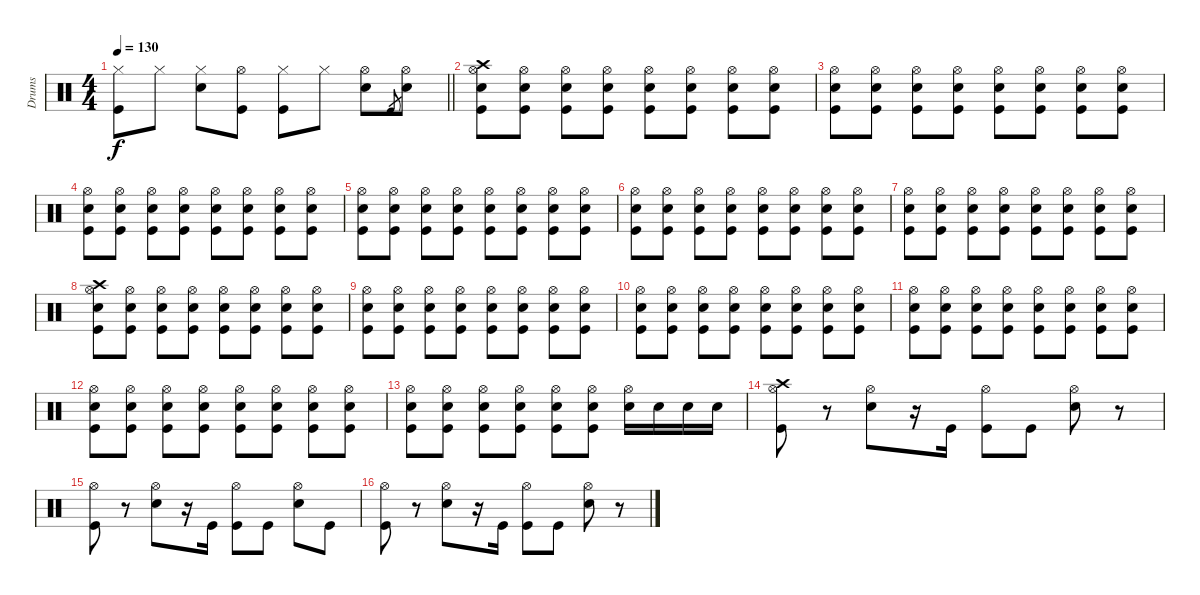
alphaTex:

\track ("Drums" "Drums") {instrument percussion}
\staff {score}
\articulation defaults
\ts (4 4)
\tempo 130
\clef neutral
\barLineRight lightlight
\ks c
("Hi-Hat (closed)" "Kick (hit)").8{dy f} "Hi-Hat (closed)".8 ("Hi-Hat (closed)" "Snare (hit) 2").8 ("Hi-Hat (open)" "Kick (hit)").8 ("Hi-Hat (closed)" "Kick (hit)").8 "Hi-Hat (closed)".8 ("Hi-Hat (open)" "Snare (hit) 2").8 "Kick (hit)".8{gr} ("Hi-Hat (open)" "Snare (hit) 2").8 |
\section ("" "")
("Crash high (hit)" "Hi-Hat (open)" "Snare (hit) 2" "Kick (hit)").8 ("Hi-Hat (open)" "Snare (hit) 2" "Kick (hit)").8 ("Hi-Hat (open)" "Snare (hit) 2" "Kick (hit)").8 ("Hi-Hat (open)" "Snare (hit) 2" "Kick (hit)").8 ("Hi-Hat (open)" "Snare (hit) 2" "Kick (hit)").8 ("Hi-Hat (open)" "Snare (hit) 2" "Kick (hit)").8 ("Hi-Hat (open)" "Snare (hit) 2" "Kick (hit)").8 ("Hi-Hat (open)" "Snare (hit) 2" "Kick (hit)").8 |
("Hi-Hat (open)" "Snare (hit) 2" "Kick (hit)").8 ("Hi-Hat (open)" "Snare (hit) 2" "Kick (hit)").8 ("Hi-Hat (open)" "Snare (hit) 2" "Kick (hit)").8 ("Hi-Hat (open)" "Snare (hit) 2" "Kick (hit)").8 ("Hi-Hat (open)" "Snare (hit) 2" "Kick (hit)").8 ("Hi-Hat (open)" "Snare (hit) 2" "Kick (hit)").8 ("Hi-Hat (open)" "Snare (hit) 2" "Kick (hit)").8 ("Hi-Hat (open)" "Snare (hit) 2" "Kick (hit)").8 |
("Hi-Hat (open)" "Snare (hit) 2" "Kick (hit)").8 ("Hi-Hat (open)" "Snare (hit) 2" "Kick (hit)").8 ("Hi-Hat (open)" "Snare (hit) 2" "Kick (hit)").8 ("Hi-Hat (open)" "Snare (hit) 2" "Kick (hit)").8 ("Hi-Hat (open)" "Snare (hit) 2" "Kick (hit)").8 ("Hi-Hat (open)" "Snare (hit) 2" "Kick (hit)").8 ("Hi-Hat (open)" "Snare (hit) 2" "Kick (hit)").8 ("Hi-Hat (open)" "Snare (hit) 2" "Kick (hit)").8 |
("Hi-Hat (open)" "Snare (hit) 2" "Kick (hit)").8 ("Hi-Hat (open)" "Snare (hit) 2" "Kick (hit)").8 ("Hi-Hat (open)" "Snare (hit) 2" "Kick (hit)").8 ("Hi-Hat (open)" "Snare (hit) 2" "Kick (hit)").8 ("Hi-Hat (open)" "Snare (hit) 2" "Kick (hit)").8 ("Hi-Hat (open)" "Snare (hit) 2" "Kick (hit)").8 ("Hi-Hat (open)" "Snare (hit) 2" "Kick (hit)").8 ("Hi-Hat (open)" "Snare (hit) 2" "Kick (hit)").8 |
("Hi-Hat (open)" "Snare (hit) 2" "Kick (hit)").8 ("Hi-Hat (open)" "Snare (hit) 2" "Kick (hit)").8 ("Hi-Hat (open)" "Snare (hit) 2" "Kick (hit)").8 ("Hi-Hat (open)" "Snare (hit) 2" "Kick (hit)").8 ("Hi-Hat (open)" "Snare (hit) 2" "Kick (hit)").8 ("Hi-Hat (open)" "Snare (hit) 2" "Kick (hit)").8 ("Hi-Hat (open)" "Snare (hit) 2" "Kick (hit)").8 ("Hi-Hat (open)" "Snare (hit) 2" "Kick (hit)").8 |
("Hi-Hat (open)" "Snare (hit) 2" "Kick (hit)").8 ("Hi-Hat (open)" "Snare (hit) 2" "Kick (hit)").8 ("Hi-Hat (open)" "Snare (hit) 2" "Kick (hit)").8 ("Hi-Hat (open)" "Snare (hit) 2" "Kick (hit)").8 ("Hi-Hat (open)" "Snare (hit) 2" "Kick (hit)").8 ("Hi-Hat (open)" "Snare (hit) 2" "Kick (hit)").8 ("Hi-Hat (open)" "Snare (hit) 2" "Kick (hit)").8 ("Hi-Hat (open)" "Snare (hit) 2" "Kick (hit)").8 |
("Crash high (hit)" "Hi-Hat (open)" "Snare (hit) 2" "Kick (hit)").8 ("Hi-Hat (open)" "Snare (hit) 2" "Kick (hit)").8 ("Hi-Hat (open)" "Snare (hit) 2" "Kick (hit)").8 ("Hi-Hat (open)" "Snare (hit) 2" "Kick (hit)").8 ("Hi-Hat (open)" "Snare (hit) 2" "Kick (hit)").8 ("Hi-Hat (open)" "Snare (hit) 2" "Kick (hit)").8 ("Hi-Hat (open)" "Snare (hit) 2" "Kick (hit)").8 ("Hi-Hat (open)" "Snare (hit) 2" "Kick (hit)").8 |
("Hi-Hat (open)" "Snare (hit) 2" "Kick (hit)").8 ("Hi-Hat (open)" "Snare (hit) 2" "Kick (hit)").8 ("Hi-Hat (open)" "Snare (hit) 2" "Kick (hit)").8 ("Hi-Hat (open)" "Snare (hit) 2" "Kick (hit)").8 ("Hi-Hat (open)" "Snare (hit) 2" "Kick (hit)").8 ("Hi-Hat (open)" "Snare (hit) 2" "Kick (hit)").8 ("Hi-Hat (open)" "Snare (hit) 2" "Kick (hit)").8 ("Hi-Hat (open)" "Snare (hit) 2" "Kick (hit)").8 |
("Hi-Hat (open)" "Snare (hit) 2" "Kick (hit)").8 ("Hi-Hat (open)" "Snare (hit) 2" "Kick (hit)").8 ("Hi-Hat (open)" "Snare (hit) 2" "Kick (hit)").8 ("Hi-Hat (open)" "Snare (hit) 2" "Kick (hit)").8 ("Hi-Hat (open)" "Snare (hit) 2" "Kick (hit)").8 ("Hi-Hat (open)" "Snare (hit) 2" "Kick (hit)").8 ("Hi-Hat (open)" "Snare (hit) 2" "Kick (hit)").8 ("Hi-Hat (open)" "Snare (hit) 2" "Kick (hit)").8 |
("Hi-Hat (open)" "Snare (hit) 2" "Kick (hit)").8 ("Hi-Hat (open)" "Snare (hit) 2" "Kick (hit)").8 ("Hi-Hat (open)" "Snare (hit) 2" "Kick (hit)").8 ("Hi-Hat (open)" "Snare (hit) 2" "Kick (hit)").8 ("Hi-Hat (open)" "Snare (hit) 2" "Kick (hit)").8 ("Hi-Hat (open)" "Snare (hit) 2" "Kick (hit)").8 ("Hi-Hat (open)" "Snare (hit) 2" "Kick (hit)").8 ("Hi-Hat (open)" "Snare (hit) 2" "Kick (hit)").8 |
("Hi-Hat (open)" "Snare (hit) 2" "Kick (hit)").8 ("Hi-Hat (open)" "Snare (hit) 2" "Kick (hit)").8 ("Hi-Hat (open)" "Snare (hit) 2" "Kick (hit)").8 ("Hi-Hat (open)" "Snare (hit) 2" "Kick (hit)").8 ("Hi-Hat (open)" "Snare (hit) 2" "Kick (hit)").8 ("Hi-Hat (open)" "Snare (hit) 2" "Kick (hit)").8 ("Hi-Hat (open)" "Snare (hit) 2" "Kick (hit)").8 ("Hi-Hat (open)" "Snare (hit) 2" "Kick (hit)").8 |
("Hi-Hat (open)" "Snare (hit) 2" "Kick (hit)").8 ("Hi-Hat (open)" "Snare (hit) 2" "Kick (hit)").8 ("Hi-Hat (open)" "Snare (hit) 2" "Kick (hit)").8 ("Hi-Hat (open)" "Snare (hit) 2" "Kick (hit)").8 ("Hi-Hat (open)" "Snare (hit) 2" "Kick (hit)").8 ("Hi-Hat (open)" "Snare (hit) 2" "Kick (hit)").8 ("Hi-Hat (open)" "Snare (hit) 2").16 "Snare (hit) 2".16 "Snare (hit) 2".16 "Snare (hit) 2".16 |
("Crash high (hit)" "Hi-Hat (open)" "Kick (hit)").8 r.8 ("Hi-Hat (open)" "Snare (hit) 2").8 r.16 "Kick (hit)".16 ("Hi-Hat (open)" "Kick (hit)").8 "Kick (hit)".8 ("Hi-Hat (open)" "Snare (hit) 2").8 r.8 |
("Hi-Hat (open)" "Kick (hit)").8 r.8 ("Hi-Hat (open)" "Snare (hit) 2").8 r.16 "Kick (hit)".16 ("Hi-Hat (open)" "Kick (hit)").8 "Kick (hit)".8 ("Hi-Hat (open)" "Snare (hit) 2").8 "Kick (hit)".8 |
("Hi-Hat (open)" "Kick (hit)").8 r.8 ("Hi-Hat (open)" "Snare (hit) 2").8 r.16 "Kick (hit)".16 ("Hi-Hat (open)" "Kick (hit)").8 "Kick (hit)".8 ("Hi-Hat (open)" "Snare (hit) 2").8 r.8
